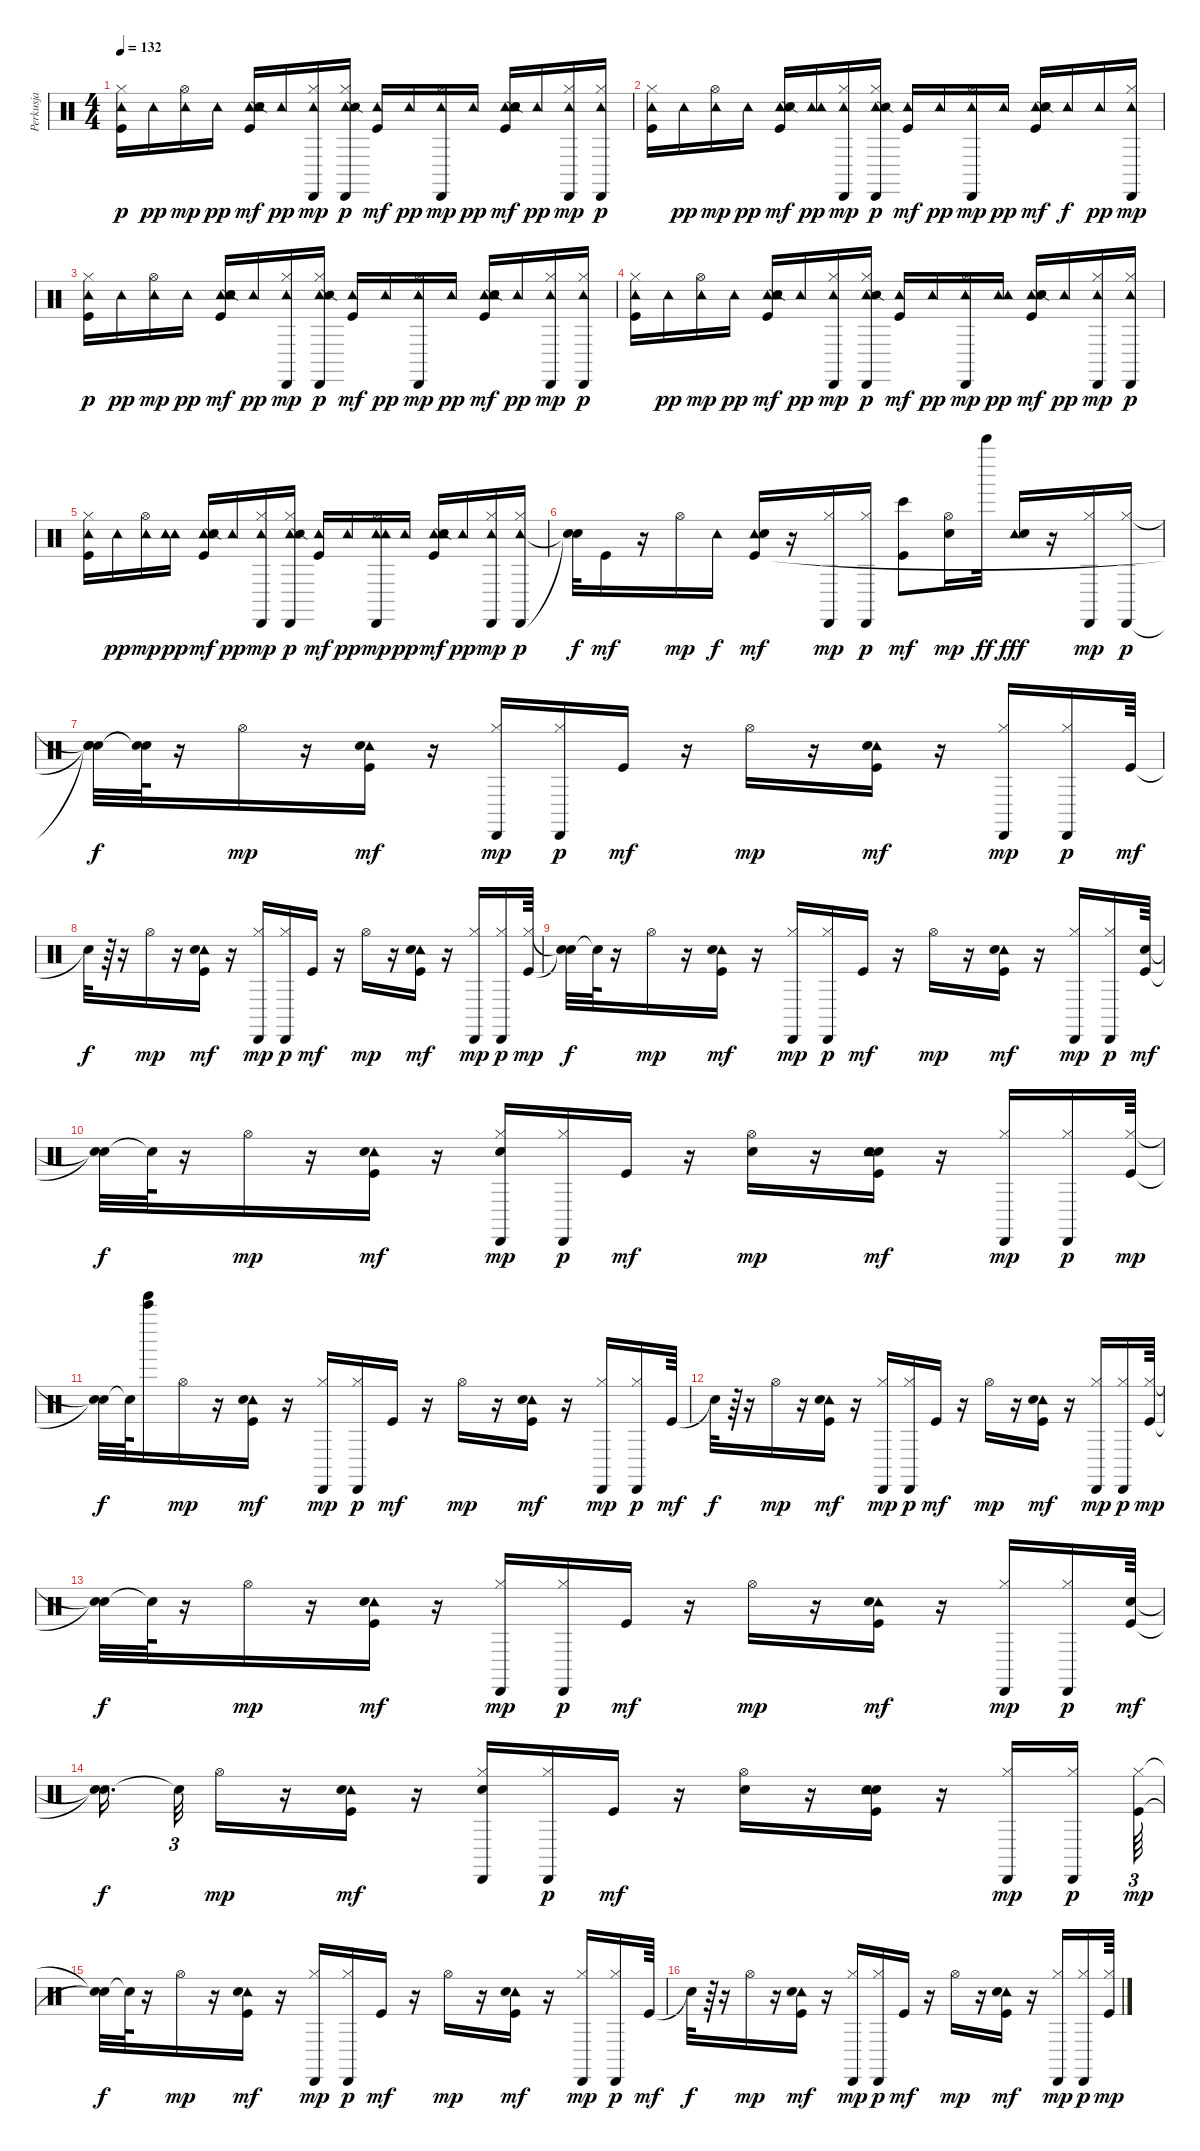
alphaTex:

\track ("Perkusja" "Perkusja") {instrument percussion}
\staff {score}
\articulation defaults
\ts (4 4)
\tempo 132
\clef neutral
\ks c
("Tambourine (hit)" "Kick (hit)" "Hi-Hat (closed)").16{dy p} "Tambourine (hit)".16{dy pp} ("Tambourine (hit)" "Hi-Hat (open)").16{dy mp} "Tambourine (hit)".16{dy pp} ("Tambourine (hit)" "Snare (hit) 2" "Snare (side stick) 2" "Kick (hit)" "Tambourine (hit)").16{dy mf} "Tambourine (hit)".16{dy pp} ("Tambourine (hit)" "Cabasa (hit)" "Hi-Hat (closed)").16{dy mp} ("Tambourine (hit)" "Snare (side stick) 2" "Cabasa (hit)" "Hi-Hat (closed)").16{dy p} ("Tambourine (hit)" "Kick (hit)").16{dy mf} "Tambourine (hit)".16{dy pp} ("Tambourine (hit)" "Cabasa (hit)" "Hi-Hat (open)").16{dy mp} "Tambourine (hit)".16{dy pp} ("Tambourine (hit)" "Snare (hit) 2" "Snare (side stick) 2" "Kick (hit)" "Tambourine (hit)").16{dy mf} "Tambourine (hit)".16{dy pp} ("Tambourine (hit)" "Cabasa (hit)" "Hi-Hat (closed)").16{dy mp} ("Tambourine (hit)" "Cabasa (hit)" "Hi-Hat (closed)").16{dy p} |
("Tambourine (hit)" "Kick (hit)" "Hi-Hat (closed)").16 "Tambourine (hit)".16{dy pp} ("Tambourine (hit)" "Hi-Hat (open)").16{dy mp} "Tambourine (hit)".16{dy pp} ("Tambourine (hit)" "Snare (hit) 2" "Snare (side stick) 2" "Kick (hit)").16{dy mf} ("Tambourine (hit)" "Tambourine (hit)").16{dy pp} ("Tambourine (hit)" "Cabasa (hit)" "Hi-Hat (closed)").16{dy mp} ("Tambourine (hit)" "Snare (side stick) 2" "Cabasa (hit)" "Hi-Hat (closed)").16{dy p} ("Tambourine (hit)" "Kick (hit)").16{dy mf} "Tambourine (hit)".16{dy pp} ("Tambourine (hit)" "Cabasa (hit)" "Hi-Hat (open)").16{dy mp} "Tambourine (hit)".16{dy pp} ("Tambourine (hit)" "Snare (hit) 2" "Snare (side stick) 2" "Kick (hit)").16{dy mf} "Tambourine (hit)".16{dy f} "Tambourine (hit)".16{dy pp} ("Tambourine (hit)" "Cabasa (hit)" "Hi-Hat (closed)").16{dy mp} |
("Tambourine (hit)" "Kick (hit)" "Hi-Hat (closed)").16{dy p} "Tambourine (hit)".16{dy pp} ("Tambourine (hit)" "Hi-Hat (open)").16{dy mp} "Tambourine (hit)".16{dy pp} ("Tambourine (hit)" "Tambourine (hit)" "Snare (hit) 2" "Snare (side stick) 2" "Kick (hit)").16{dy mf} "Tambourine (hit)".16{dy pp} ("Tambourine (hit)" "Cabasa (hit)" "Hi-Hat (closed)").16{dy mp} ("Tambourine (hit)" "Snare (side stick) 2" "Cabasa (hit)" "Hi-Hat (closed)").16{dy p} ("Tambourine (hit)" "Kick (hit)").16{dy mf} "Tambourine (hit)".16{dy pp} ("Tambourine (hit)" "Cabasa (hit)" "Hi-Hat (open)").16{dy mp} "Tambourine (hit)".16{dy pp} ("Tambourine (hit)" "Snare (hit) 2" "Snare (side stick) 2" "Kick (hit)" "Tambourine (hit)").16{dy mf} "Tambourine (hit)".16{dy pp} ("Tambourine (hit)" "Cabasa (hit)" "Hi-Hat (closed)").16{dy mp} ("Tambourine (hit)" "Cabasa (hit)" "Hi-Hat (closed)").16{dy p} |
("Tambourine (hit)" "Kick (hit)" "Hi-Hat (closed)").16 "Tambourine (hit)".16{dy pp} ("Tambourine (hit)" "Hi-Hat (open)").16{dy mp} "Tambourine (hit)".16{dy pp} ("Tambourine (hit)" "Snare (hit) 2" "Snare (side stick) 2" "Kick (hit)" "Tambourine (hit)").16{dy mf} "Tambourine (hit)".16{dy pp} ("Tambourine (hit)" "Cabasa (hit)" "Hi-Hat (closed)").16{dy mp} ("Tambourine (hit)" "Snare (side stick) 2" "Cabasa (hit)" "Hi-Hat (closed)").16{dy p} ("Tambourine (hit)" "Kick (hit)").16{dy mf} "Tambourine (hit)".16{dy pp} ("Tambourine (hit)" "Cabasa (hit)" "Hi-Hat (open)").16{dy mp} ("Tambourine (hit)" "Tambourine (hit)").16{dy pp} ("Tambourine (hit)" "Snare (hit) 2" "Snare (side stick) 2" "Kick (hit)").16{dy mf} "Tambourine (hit)".16{dy pp} ("Tambourine (hit)" "Cabasa (hit)" "Hi-Hat (closed)").16{dy mp} ("Tambourine (hit)" "Cabasa (hit)" "Hi-Hat (closed)").16{dy p} |
("Tambourine (hit)" "Kick (hit)" "Hi-Hat (closed)").16 "Tambourine (hit)".16{dy pp} ("Tambourine (hit)" "Hi-Hat (open)").16{dy mp} ("Tambourine (hit)" "Tambourine (hit)").16{dy pp} ("Tambourine (hit)" "Snare (hit) 2" "Snare (side stick) 2" "Kick (hit)").16{dy mf} "Tambourine (hit)".16{dy pp} ("Tambourine (hit)" "Cabasa (hit)" "Hi-Hat (closed)").16{dy mp} ("Tambourine (hit)" "Snare (side stick) 2" "Cabasa (hit)" "Hi-Hat (closed)").16{dy p} ("Tambourine (hit)" "Kick (hit)").16{dy mf} "Tambourine (hit)".16{dy pp} ("Tambourine (hit)" "Cabasa (hit)" "Hi-Hat (open)" "Tambourine (hit)").16{dy mp} "Tambourine (hit)".16{dy pp} ("Tambourine (hit)" "Tambourine (hit)" "Snare (hit) 2" "Snare (side stick) 2" "Kick (hit)").16{dy mf} "Tambourine (hit)".16{dy pp} ("Tambourine (hit)" "Cabasa (hit)" "Hi-Hat (closed)").16{dy mp} ("Tambourine (hit)" "Cabasa (hit)" "Hi-Hat (closed)").16{dy p} |
("Snare (hit)"{t} "Snare (hit)"{t}).32{dy f} "Kick (hit)".16{dy mf} r.16 "Hi-Hat (open)".16{dy mp} "Tambourine (hit)".16{dy f} ("Tambourine (hit)" "Snare (hit) 2" "Kick (hit)").16{dy mf} r.16 ("Cabasa (hit)" "Hi-Hat (closed)").16{dy mp} ("Cabasa (hit)" "Hi-Hat (closed)").16{dy p} ("Bongo High (hit)" "Kick (hit)").8{dy mf} ("Snare (hit) 2" "Hi-Hat (open)").16{dy mp} "Bell Tree (hit)".32{dy ff} ("Tambourine (hit)" "Snare (hit) 2").16{dy fff} r.16 ("Cabasa (hit)" "Hi-Hat (closed)").16{dy mp} ("Cabasa (hit)" "Hi-Hat (closed)").16{dy p} |
("Snare (hit)"{t} "Snare (hit)"{t} "Snare (hit)"{t}).32{dy f} ("Snare (hit)"{t} "Snare (hit)"{t}).64 r.16 "Hi-Hat (open)".16{dy mp} r.16 ("Tambourine (hit)" "Snare (hit) 2" "Kick (hit)").16{dy mf} r.16 ("Cabasa (hit)" "Hi-Hat (closed)").16{dy mp} ("Cabasa (hit)" "Hi-Hat (closed)").16{dy p} "Kick (hit)".16{dy mf} r.16 "Hi-Hat (open)".16{dy mp} r.16 ("Tambourine (hit)" "Snare (hit) 2" "Kick (hit)").16{dy mf} r.16 ("Cabasa (hit)" "Hi-Hat (closed)").16{dy mp} ("Cabasa (hit)" "Hi-Hat (closed)").16{dy p} "Kick (hit)".64{dy mf} |
"Snare (hit)"{t}.32{dy f} r.64 r.16 "Hi-Hat (open)".16{dy mp} r.16 ("Tambourine (hit)" "Snare (hit) 2" "Kick (hit)").16{dy mf} r.16 ("Cabasa (hit)" "Hi-Hat (closed)").16{dy mp} ("Cabasa (hit)" "Hi-Hat (closed)").16{dy p} "Kick (hit)".16{dy mf} r.16 "Hi-Hat (open)".16{dy mp} r.16 ("Tambourine (hit)" "Snare (hit) 2" "Kick (hit)").16{dy mf} r.16 ("Cabasa (hit)" "Hi-Hat (closed)").16{dy mp} ("Cabasa (hit)" "Hi-Hat (closed)").16{dy p} ("Kick (hit)" "Hi-Hat (closed)").64{dy mp} |
("Snare (hit)"{t} "Snare (hit)"{t}).32{dy f} "Snare (hit)"{t}.64 r.16 "Hi-Hat (open)".16{dy mp} r.16 ("Tambourine (hit)" "Snare (hit) 2" "Kick (hit)").16{dy mf} r.16 ("Cabasa (hit)" "Hi-Hat (closed)").16{dy mp} ("Cabasa (hit)" "Hi-Hat (closed)").16{dy p} "Kick (hit)".16{dy mf} r.16 "Hi-Hat (open)".16{dy mp} r.16 ("Tambourine (hit)" "Snare (hit) 2" "Kick (hit)").16{dy mf} r.16 ("Cabasa (hit)" "Hi-Hat (closed)").16{dy mp} ("Cabasa (hit)" "Hi-Hat (closed)").16{dy p} ("Hand Clap (hit)" "Kick (hit)").64{dy mf} |
("Snare (hit)"{t} "Snare (hit)"{t}).32{dy f} "Snare (hit)"{t}.64 r.16 "Hi-Hat (open)".16{dy mp} r.16 ("Tambourine (hit)" "Snare (hit) 2" "Kick (hit)").16{dy mf} r.16 ("Hand Clap (hit)" "Cabasa (hit)" "Hi-Hat (closed)").16{dy mp} ("Cabasa (hit)" "Hi-Hat (closed)").16{dy p} "Kick (hit)".16{dy mf} r.16 ("Hand Clap (hit)" "Hi-Hat (open)").16{dy mp} r.16 ("Hand Clap (hit)" "Tambourine (hit)" "Snare (hit) 2" "Kick (hit)").16{dy mf} r.16 ("Cabasa (hit)" "Hi-Hat (closed)").16{dy mp} ("Cabasa (hit)" "Hi-Hat (closed)").16{dy p} ("Kick (hit)" "Hi-Hat (closed)").64{dy mp} |
("Snare (hit)"{t} "Snare (hit)"{t}).32{dy f} "Snare (hit)"{t}.64 ("Bell Tree (hit)" "Tinkle Bell (hit)").16 "Hi-Hat (open)".16{dy mp} r.16 ("Tambourine (hit)" "Snare (hit) 2" "Kick (hit)").16{dy mf} r.16 ("Cabasa (hit)" "Hi-Hat (closed)").16{dy mp} ("Cabasa (hit)" "Hi-Hat (closed)").16{dy p} "Kick (hit)".16{dy mf} r.16 "Hi-Hat (open)".16{dy mp} r.16 ("Tambourine (hit)" "Snare (hit) 2" "Kick (hit)").16{dy mf} r.16 ("Cabasa (hit)" "Hi-Hat (closed)").16{dy mp} ("Cabasa (hit)" "Hi-Hat (closed)").16{dy p} "Kick (hit)".64{dy mf} |
"Snare (hit)"{t}.32{dy f} r.64 r.16 "Hi-Hat (open)".16{dy mp} r.16 ("Tambourine (hit)" "Snare (hit) 2" "Kick (hit)").16{dy mf} r.16 ("Cabasa (hit)" "Hi-Hat (closed)").16{dy mp} ("Cabasa (hit)" "Hi-Hat (closed)").16{dy p} "Kick (hit)".16{dy mf} r.16 "Hi-Hat (open)".16{dy mp} r.16 ("Tambourine (hit)" "Snare (hit) 2" "Kick (hit)").16{dy mf} r.16 ("Cabasa (hit)" "Hi-Hat (closed)").16{dy mp} ("Cabasa (hit)" "Hi-Hat (closed)").16{dy p} ("Kick (hit)" "Hi-Hat (closed)").64{dy mp} |
("Snare (hit)"{t} "Snare (hit)"{t}).32{dy f} "Snare (hit)"{t}.64 r.16 "Hi-Hat (open)".16{dy mp} r.16 ("Tambourine (hit)" "Snare (hit) 2" "Kick (hit)").16{dy mf} r.16 ("Cabasa (hit)" "Hi-Hat (closed)").16{dy mp} ("Cabasa (hit)" "Hi-Hat (closed)").16{dy p} "Kick (hit)".16{dy mf} r.16 "Hi-Hat (open)".16{dy mp} r.16 ("Tambourine (hit)" "Snare (hit) 2" "Kick (hit)").16{dy mf} r.16 ("Cabasa (hit)" "Hi-Hat (closed)").16{dy mp} ("Cabasa (hit)" "Hi-Hat (closed)").16{dy p} ("Kick (hit)" "Hand Clap (hit)").64{dy mf} |
("Snare (hit)"{t} "Snare (hit)"{t}).16{d dy f beam splitsecondary} "Snare (hit)"{t}.32{tu (3 2)} "Hi-Hat (open)".16{dy mp} r.16 ("Tambourine (hit)" "Snare (hit) 2" "Kick (hit)").16{dy mf} r.16 ("Cabasa (hit)" "Hi-Hat (closed)" "Hand Clap (hit)").16 ("Cabasa (hit)" "Hi-Hat (closed)").16{dy p} "Kick (hit)".16{dy mf} r.16 ("Hi-Hat (open)" "Hand Clap (hit)").16 r.16 ("Hand Clap (hit)" "Tambourine (hit)" "Snare (hit) 2" "Kick (hit)").16 r.16 ("Cabasa (hit)" "Hi-Hat (closed)").16{dy mp} ("Cabasa (hit)" "Hi-Hat (closed)").16{dy p beam splitsecondary} ("Kick (hit)" "Hi-Hat (closed)").64{tu (3 2) dy mp} |
("Snare (hit)"{t} "Snare (hit)"{t}).32{dy f} "Snare (hit)"{t}.64 r.16 "Hi-Hat (open)".16{dy mp} r.16 ("Tambourine (hit)" "Snare (hit) 2" "Kick (hit)").16{dy mf} r.16 ("Cabasa (hit)" "Hi-Hat (closed)").16{dy mp} ("Cabasa (hit)" "Hi-Hat (closed)").16{dy p} "Kick (hit)".16{dy mf} r.16 "Hi-Hat (open)".16{dy mp} r.16 ("Tambourine (hit)" "Snare (hit) 2" "Kick (hit)").16{dy mf} r.16 ("Cabasa (hit)" "Hi-Hat (closed)").16{dy mp} ("Cabasa (hit)" "Hi-Hat (closed)").16{dy p} "Kick (hit)".64{dy mf} |
"Snare (hit)"{t}.32{dy f} r.64 r.16 "Hi-Hat (open)".16{dy mp} r.16 ("Tambourine (hit)" "Snare (hit) 2" "Kick (hit)").16{dy mf} r.16 ("Cabasa (hit)" "Hi-Hat (closed)").16{dy mp} ("Cabasa (hit)" "Hi-Hat (closed)").16{dy p} "Kick (hit)".16{dy mf} r.16 "Hi-Hat (open)".16{dy mp} r.16 ("Tambourine (hit)" "Snare (hit) 2" "Kick (hit)").16{dy mf} r.16 ("Cabasa (hit)" "Hi-Hat (closed)").16{dy mp} ("Cabasa (hit)" "Hi-Hat (closed)").16{dy p} ("Kick (hit)" "Hi-Hat (closed)").64{dy mp}
